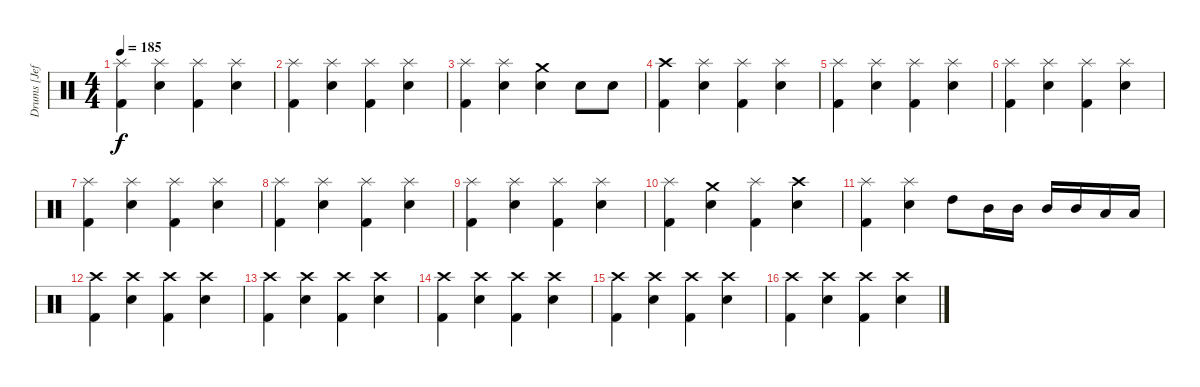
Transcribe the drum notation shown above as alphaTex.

\track ("Drums [Jeff]" "Drums [Jef") {instrument percussion}
\staff {score}
\articulation defaults
\ts (4 4)
\tempo 185
\clef neutral
\ks c
("Splash (hit)" "Kick (hit) 2").4{dy f} ("Splash (hit)" "Electric Snare (hit)").4 ("Splash (hit)" "Kick (hit) 2").4 ("Splash (hit)" "Electric Snare (hit)").4 |
("Splash (hit)" "Kick (hit) 2").4 ("Splash (hit)" "Electric Snare (hit)").4 ("Splash (hit)" "Kick (hit) 2").4 ("Splash (hit)" "Electric Snare (hit)").4 |
("Splash (hit)" "Kick (hit) 2").4 ("Splash (hit)" "Electric Snare (hit)").4 ("Crash medium (hit)" "Electric Snare (hit)").4 "Electric Snare (hit)".8 "Electric Snare (hit)".8 |
("Crash high (hit)" "Kick (hit) 2").4 ("Splash (hit)" "Electric Snare (hit)").4 ("Splash (hit)" "Kick (hit) 2").4 ("Splash (hit)" "Electric Snare (hit)").4 |
("Splash (hit)" "Kick (hit) 2").4 ("Splash (hit)" "Electric Snare (hit)").4 ("Splash (hit)" "Kick (hit) 2").4 ("Splash (hit)" "Electric Snare (hit)").4 |
("Splash (hit)" "Kick (hit) 2").4 ("Splash (hit)" "Electric Snare (hit)").4 ("Splash (hit)" "Kick (hit) 2").4 ("Splash (hit)" "Electric Snare (hit)").4 |
("Splash (hit)" "Kick (hit) 2").4 ("Splash (hit)" "Electric Snare (hit)").4 ("Splash (hit)" "Kick (hit) 2").4 ("Splash (hit)" "Electric Snare (hit)").4 |
("Splash (hit)" "Kick (hit) 2").4 ("Splash (hit)" "Electric Snare (hit)").4 ("Splash (hit)" "Kick (hit) 2").4 ("Splash (hit)" "Electric Snare (hit)").4 |
("Splash (hit)" "Kick (hit) 2").4 ("Splash (hit)" "Electric Snare (hit)").4 ("Splash (hit)" "Kick (hit) 2").4 ("Splash (hit)" "Electric Snare (hit)").4 |
("Splash (hit)" "Kick (hit) 2").4 ("Crash medium (hit)" "Electric Snare (hit)").4 ("Splash (hit)" "Kick (hit) 2").4 ("Crash high (hit)" "Electric Snare (hit)").4 |
("Splash (hit)" "Kick (hit) 2").4 ("Splash (hit)" "Electric Snare (hit)").4 "High Tom (hit)".8 "Mid Tom (hit)".16 "Mid Tom (hit)".16 "Mid Tom (hit)".16 "Mid Tom (hit)".16 "Low Tom (hit)".16 "Low Tom (hit)".16 |
("Crash high (hit)" "Kick (hit) 2").4 ("Crash high (hit)" "Electric Snare (hit)").4 ("Crash high (hit)" "Kick (hit) 2").4 ("Crash high (hit)" "Electric Snare (hit)").4 |
("Crash high (hit)" "Kick (hit) 2").4 ("Crash high (hit)" "Electric Snare (hit)").4 ("Crash high (hit)" "Kick (hit) 2").4 ("Crash high (hit)" "Electric Snare (hit)").4 |
("Crash high (hit)" "Kick (hit) 2").4 ("Crash high (hit)" "Electric Snare (hit)").4 ("Crash high (hit)" "Kick (hit) 2").4 ("Crash high (hit)" "Electric Snare (hit)").4 |
("Crash high (hit)" "Kick (hit) 2").4 ("Crash high (hit)" "Electric Snare (hit)").4 ("Crash high (hit)" "Kick (hit) 2").4 ("Crash high (hit)" "Electric Snare (hit)").4 |
("Crash high (hit)" "Kick (hit) 2").4 ("Crash high (hit)" "Electric Snare (hit)").4 ("Crash high (hit)" "Kick (hit) 2").4 ("Crash high (hit)" "Electric Snare (hit)").4
